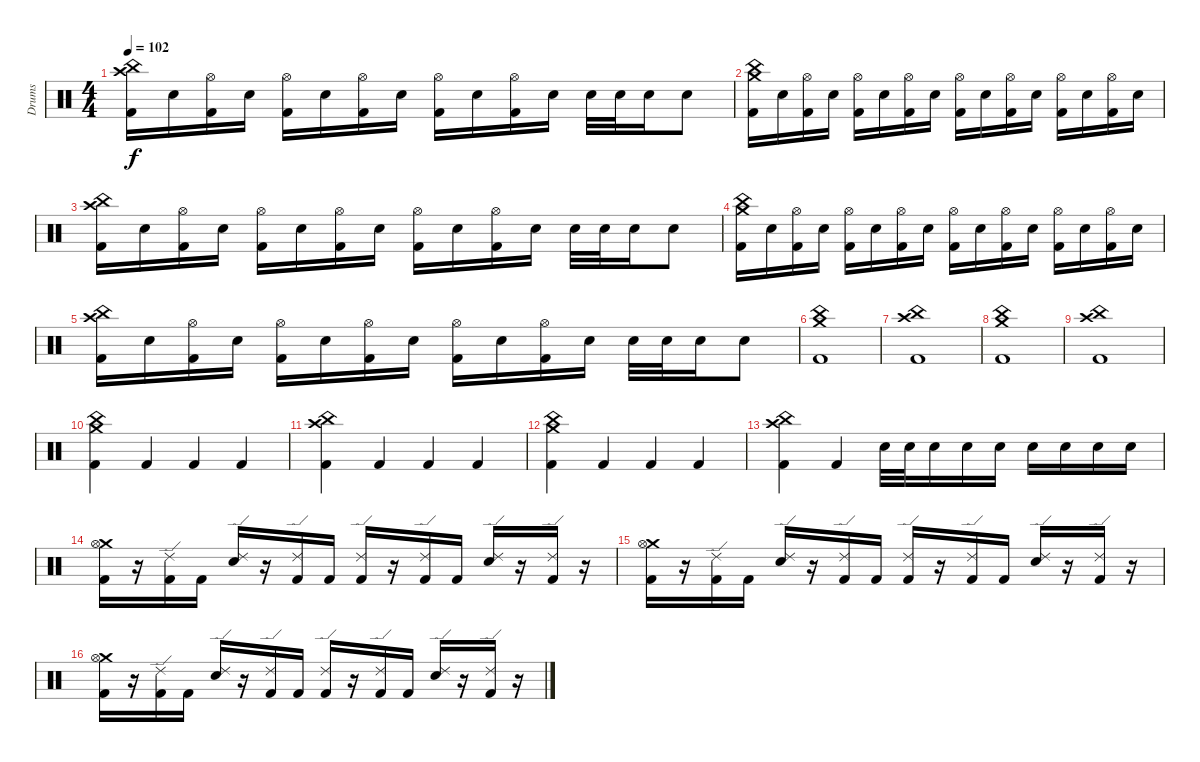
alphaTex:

\track ("Drums" "Drums") {instrument percussion}
\staff {score}
\articulation defaults
\ts (4 4)
\tempo 102
\clef neutral
\ks c
("China (hit)" "Crash high (hit)" "Kick (hit) 2").16{dy f} "Electric Snare (hit)".16 ("Hi-Hat (open)" "Kick (hit) 2").16 "Electric Snare (hit)".16 ("Hi-Hat (open)" "Kick (hit) 2").16 "Electric Snare (hit)".16 ("Hi-Hat (open)" "Kick (hit) 2").16 "Electric Snare (hit)".16 ("Hi-Hat (open)" "Kick (hit) 2").16 "Electric Snare (hit)".16 ("Hi-Hat (open)" "Kick (hit) 2").16 "Electric Snare (hit)".16 "Electric Snare (hit)".32 "Electric Snare (hit)".32 "Electric Snare (hit)".16 "Electric Snare (hit)".8 |
("China (hit)" "Crash medium (hit)" "Kick (hit) 2").16 "Electric Snare (hit)".16 ("Hi-Hat (open)" "Kick (hit) 2").16 "Electric Snare (hit)".16 ("Hi-Hat (open)" "Kick (hit) 2").16 "Electric Snare (hit)".16 ("Hi-Hat (open)" "Kick (hit) 2").16 "Electric Snare (hit)".16 ("Hi-Hat (open)" "Kick (hit) 2").16 "Electric Snare (hit)".16 ("Hi-Hat (open)" "Kick (hit) 2").16 "Electric Snare (hit)".16 ("Hi-Hat (open)" "Kick (hit) 2").16 "Electric Snare (hit)".16 ("Hi-Hat (open)" "Kick (hit) 2").16 "Electric Snare (hit)".16 |
("China (hit)" "Crash high (hit)" "Kick (hit) 2").16 "Electric Snare (hit)".16 ("Hi-Hat (open)" "Kick (hit) 2").16 "Electric Snare (hit)".16 ("Hi-Hat (open)" "Kick (hit) 2").16 "Electric Snare (hit)".16 ("Hi-Hat (open)" "Kick (hit) 2").16 "Electric Snare (hit)".16 ("Hi-Hat (open)" "Kick (hit) 2").16 "Electric Snare (hit)".16 ("Hi-Hat (open)" "Kick (hit) 2").16 "Electric Snare (hit)".16 "Electric Snare (hit)".32 "Electric Snare (hit)".32 "Electric Snare (hit)".16 "Electric Snare (hit)".8 |
("China (hit)" "Crash medium (hit)" "Kick (hit) 2").16 "Electric Snare (hit)".16 ("Hi-Hat (open)" "Kick (hit) 2").16 "Electric Snare (hit)".16 ("Hi-Hat (open)" "Kick (hit) 2").16 "Electric Snare (hit)".16 ("Hi-Hat (open)" "Kick (hit) 2").16 "Electric Snare (hit)".16 ("Hi-Hat (open)" "Kick (hit) 2").16 "Electric Snare (hit)".16 ("Hi-Hat (open)" "Kick (hit) 2").16 "Electric Snare (hit)".16 ("Hi-Hat (open)" "Kick (hit) 2").16 "Electric Snare (hit)".16 ("Hi-Hat (open)" "Kick (hit) 2").16 "Electric Snare (hit)".16 |
("China (hit)" "Crash high (hit)" "Kick (hit) 2").16 "Electric Snare (hit)".16 ("Hi-Hat (open)" "Kick (hit) 2").16 "Electric Snare (hit)".16 ("Hi-Hat (open)" "Kick (hit) 2").16 "Electric Snare (hit)".16 ("Hi-Hat (open)" "Kick (hit) 2").16 "Electric Snare (hit)".16 ("Hi-Hat (open)" "Kick (hit) 2").16 "Electric Snare (hit)".16 ("Hi-Hat (open)" "Kick (hit) 2").16 "Electric Snare (hit)".16 "Electric Snare (hit)".32 "Electric Snare (hit)".32 "Electric Snare (hit)".16 "Electric Snare (hit)".8 |
\section ("" "")
("China (hit)" "Crash medium (hit)" "Kick (hit) 2").1 |
("China (hit)" "Crash high (hit)" "Kick (hit) 2").1 |
("China (hit)" "Crash medium (hit)" "Kick (hit) 2").1 |
("China (hit)" "Crash high (hit)" "Kick (hit) 2").1 |
("China (hit)" "Crash medium (hit)" "Kick (hit) 2").4 "Kick (hit) 2".4 "Kick (hit) 2".4 "Kick (hit) 2".4 |
("China (hit)" "Crash high (hit)" "Kick (hit) 2").4 "Kick (hit) 2".4 "Kick (hit) 2".4 "Kick (hit) 2".4 |
("China (hit)" "Crash medium (hit)" "Kick (hit) 2").4 "Kick (hit) 2".4 "Kick (hit) 2".4 "Kick (hit) 2".4 |
("China (hit)" "Crash high (hit)" "Kick (hit) 2").4 "Kick (hit) 2".4 "Electric Snare (hit)".32 "Electric Snare (hit)".32 "Electric Snare (hit)".16 "Electric Snare (hit)".16 "Electric Snare (hit)".16 "Electric Snare (hit)".16 "Electric Snare (hit)".16 "Electric Snare (hit)".16 "Electric Snare (hit)".16 |
("Crash medium (hit)" "Hi-Hat (open)" "Kick (hit) 2").16 r.16 ("Ride (edge) 2" "Kick (hit) 2").16 "Kick (hit) 2".16 ("Ride (edge) 2" "Electric Snare (hit)").16 r.16 ("Ride (edge) 2" "Kick (hit) 2").16 "Kick (hit) 2".16 ("Ride (edge) 2" "Kick (hit) 2").16 r.16 ("Ride (edge) 2" "Kick (hit) 2").16 "Kick (hit) 2".16 ("Ride (edge) 2" "Electric Snare (hit)").16 r.16 ("Ride (edge) 2" "Kick (hit) 2").16 r.16 |
("Crash medium (hit)" "Hi-Hat (open)" "Kick (hit) 2").16 r.16 ("Ride (edge) 2" "Kick (hit) 2").16 "Kick (hit) 2".16 ("Ride (edge) 2" "Electric Snare (hit)").16 r.16 ("Ride (edge) 2" "Kick (hit) 2").16 "Kick (hit) 2".16 ("Ride (edge) 2" "Kick (hit) 2").16 r.16 ("Ride (edge) 2" "Kick (hit) 2").16 "Kick (hit) 2".16 ("Ride (edge) 2" "Electric Snare (hit)").16 r.16 ("Ride (edge) 2" "Kick (hit) 2").16 r.16 |
("Crash medium (hit)" "Hi-Hat (open)" "Kick (hit) 2").16 r.16 ("Ride (edge) 2" "Kick (hit) 2").16 "Kick (hit) 2".16 ("Ride (edge) 2" "Electric Snare (hit)").16 r.16 ("Ride (edge) 2" "Kick (hit) 2").16 "Kick (hit) 2".16 ("Ride (edge) 2" "Kick (hit) 2").16 r.16 ("Ride (edge) 2" "Kick (hit) 2").16 "Kick (hit) 2".16 ("Ride (edge) 2" "Electric Snare (hit)").16 r.16 ("Ride (edge) 2" "Kick (hit) 2").16 r.16
